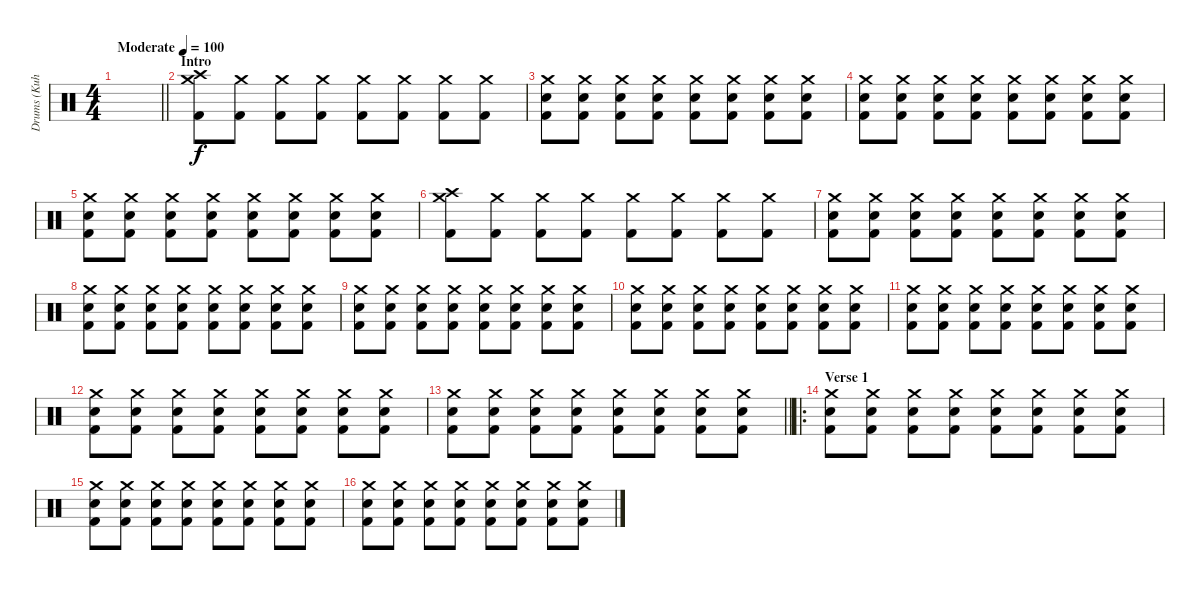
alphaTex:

\track ("Drums (Kuhara)" "Drums (Kuh") {instrument percussion}
\staff {score}
\articulation defaults
\ts (4 4)
\tempo (100 "Moderate")
\clef neutral
\barLineRight lightlight
\ks c
|
\section ("" "Intro")
("Crash medium (hit)" "Crash high (hit)" "Kick (hit) 2").8 ("Crash medium (hit)" "Kick (hit) 2").8 ("Crash medium (hit)" "Kick (hit) 2").8 ("Crash medium (hit)" "Kick (hit) 2").8 ("Crash medium (hit)" "Kick (hit) 2").8 ("Crash medium (hit)" "Kick (hit) 2").8 ("Crash medium (hit)" "Kick (hit) 2").8 ("Crash medium (hit)" "Kick (hit) 2").8 |
("Crash medium (hit)" "Electric Snare (hit)" "Kick (hit) 2").8 ("Crash medium (hit)" "Electric Snare (hit)" "Kick (hit) 2").8 ("Crash medium (hit)" "Electric Snare (hit)" "Kick (hit) 2").8 ("Crash medium (hit)" "Electric Snare (hit)" "Kick (hit) 2").8 ("Crash medium (hit)" "Electric Snare (hit)" "Kick (hit) 2").8 ("Crash medium (hit)" "Electric Snare (hit)" "Kick (hit) 2").8 ("Crash medium (hit)" "Electric Snare (hit)" "Kick (hit) 2").8 ("Crash medium (hit)" "Electric Snare (hit)" "Kick (hit) 2").8 |
("Crash medium (hit)" "Electric Snare (hit)" "Kick (hit) 2").8 ("Crash medium (hit)" "Electric Snare (hit)" "Kick (hit) 2").8 ("Crash medium (hit)" "Electric Snare (hit)" "Kick (hit) 2").8 ("Crash medium (hit)" "Electric Snare (hit)" "Kick (hit) 2").8 ("Crash medium (hit)" "Electric Snare (hit)" "Kick (hit) 2").8 ("Crash medium (hit)" "Electric Snare (hit)" "Kick (hit) 2").8 ("Crash medium (hit)" "Electric Snare (hit)" "Kick (hit) 2").8 ("Crash medium (hit)" "Electric Snare (hit)" "Kick (hit) 2").8 |
("Crash medium (hit)" "Electric Snare (hit)" "Kick (hit) 2").8 ("Crash medium (hit)" "Electric Snare (hit)" "Kick (hit) 2").8 ("Crash medium (hit)" "Electric Snare (hit)" "Kick (hit) 2").8 ("Crash medium (hit)" "Electric Snare (hit)" "Kick (hit) 2").8 ("Crash medium (hit)" "Electric Snare (hit)" "Kick (hit) 2").8 ("Crash medium (hit)" "Electric Snare (hit)" "Kick (hit) 2").8 ("Crash medium (hit)" "Electric Snare (hit)" "Kick (hit) 2").8 ("Crash medium (hit)" "Electric Snare (hit)" "Kick (hit) 2").8 |
("Crash medium (hit)" "Crash high (hit)" "Kick (hit) 2").8 ("Crash medium (hit)" "Kick (hit) 2").8 ("Crash medium (hit)" "Kick (hit) 2").8 ("Crash medium (hit)" "Kick (hit) 2").8 ("Crash medium (hit)" "Kick (hit) 2").8 ("Crash medium (hit)" "Kick (hit) 2").8 ("Crash medium (hit)" "Kick (hit) 2").8 ("Crash medium (hit)" "Kick (hit) 2").8 |
("Crash medium (hit)" "Electric Snare (hit)" "Kick (hit) 2").8 ("Crash medium (hit)" "Electric Snare (hit)" "Kick (hit) 2").8 ("Crash medium (hit)" "Electric Snare (hit)" "Kick (hit) 2").8 ("Crash medium (hit)" "Electric Snare (hit)" "Kick (hit) 2").8 ("Crash medium (hit)" "Electric Snare (hit)" "Kick (hit) 2").8 ("Crash medium (hit)" "Electric Snare (hit)" "Kick (hit) 2").8 ("Crash medium (hit)" "Electric Snare (hit)" "Kick (hit) 2").8 ("Crash medium (hit)" "Electric Snare (hit)" "Kick (hit) 2").8 |
("Crash medium (hit)" "Electric Snare (hit)" "Kick (hit) 2").8 ("Crash medium (hit)" "Electric Snare (hit)" "Kick (hit) 2").8 ("Crash medium (hit)" "Electric Snare (hit)" "Kick (hit) 2").8 ("Crash medium (hit)" "Electric Snare (hit)" "Kick (hit) 2").8 ("Crash medium (hit)" "Electric Snare (hit)" "Kick (hit) 2").8 ("Crash medium (hit)" "Electric Snare (hit)" "Kick (hit) 2").8 ("Crash medium (hit)" "Electric Snare (hit)" "Kick (hit) 2").8 ("Crash medium (hit)" "Electric Snare (hit)" "Kick (hit) 2").8 |
("Crash medium (hit)" "Electric Snare (hit)" "Kick (hit) 2").8 ("Crash medium (hit)" "Electric Snare (hit)" "Kick (hit) 2").8 ("Crash medium (hit)" "Electric Snare (hit)" "Kick (hit) 2").8 ("Crash medium (hit)" "Electric Snare (hit)" "Kick (hit) 2").8 ("Crash medium (hit)" "Electric Snare (hit)" "Kick (hit) 2").8 ("Crash medium (hit)" "Electric Snare (hit)" "Kick (hit) 2").8 ("Crash medium (hit)" "Electric Snare (hit)" "Kick (hit) 2").8 ("Crash medium (hit)" "Electric Snare (hit)" "Kick (hit) 2").8 |
("Crash medium (hit)" "Electric Snare (hit)" "Kick (hit) 2").8 ("Crash medium (hit)" "Electric Snare (hit)" "Kick (hit) 2").8 ("Crash medium (hit)" "Electric Snare (hit)" "Kick (hit) 2").8 ("Crash medium (hit)" "Electric Snare (hit)" "Kick (hit) 2").8 ("Crash medium (hit)" "Electric Snare (hit)" "Kick (hit) 2").8 ("Crash medium (hit)" "Electric Snare (hit)" "Kick (hit) 2").8 ("Crash medium (hit)" "Electric Snare (hit)" "Kick (hit) 2").8 ("Crash medium (hit)" "Electric Snare (hit)" "Kick (hit) 2").8 |
("Crash medium (hit)" "Electric Snare (hit)" "Kick (hit) 2").8 ("Crash medium (hit)" "Electric Snare (hit)" "Kick (hit) 2").8 ("Crash medium (hit)" "Electric Snare (hit)" "Kick (hit) 2").8 ("Crash medium (hit)" "Electric Snare (hit)" "Kick (hit) 2").8 ("Crash medium (hit)" "Electric Snare (hit)" "Kick (hit) 2").8 ("Crash medium (hit)" "Electric Snare (hit)" "Kick (hit) 2").8 ("Crash medium (hit)" "Electric Snare (hit)" "Kick (hit) 2").8 ("Crash medium (hit)" "Electric Snare (hit)" "Kick (hit) 2").8 |
("Crash medium (hit)" "Electric Snare (hit)" "Kick (hit) 2").8 ("Crash medium (hit)" "Electric Snare (hit)" "Kick (hit) 2").8 ("Crash medium (hit)" "Electric Snare (hit)" "Kick (hit) 2").8 ("Crash medium (hit)" "Electric Snare (hit)" "Kick (hit) 2").8 ("Crash medium (hit)" "Electric Snare (hit)" "Kick (hit) 2").8 ("Crash medium (hit)" "Electric Snare (hit)" "Kick (hit) 2").8 ("Crash medium (hit)" "Electric Snare (hit)" "Kick (hit) 2").8 ("Crash medium (hit)" "Electric Snare (hit)" "Kick (hit) 2").8 |
\barLineRight lightlight
("Crash medium (hit)" "Electric Snare (hit)" "Kick (hit) 2").8 ("Crash medium (hit)" "Electric Snare (hit)" "Kick (hit) 2").8 ("Crash medium (hit)" "Electric Snare (hit)" "Kick (hit) 2").8 ("Crash medium (hit)" "Electric Snare (hit)" "Kick (hit) 2").8 ("Crash medium (hit)" "Electric Snare (hit)" "Kick (hit) 2").8 ("Crash medium (hit)" "Electric Snare (hit)" "Kick (hit) 2").8 ("Crash medium (hit)" "Electric Snare (hit)" "Kick (hit) 2").8 ("Crash medium (hit)" "Electric Snare (hit)" "Kick (hit) 2").8 |
\ro
\section ("" "Verse 1")
("Crash medium (hit)" "Electric Snare (hit)" "Kick (hit) 2").8 ("Crash medium (hit)" "Electric Snare (hit)" "Kick (hit) 2").8 ("Crash medium (hit)" "Electric Snare (hit)" "Kick (hit) 2").8 ("Crash medium (hit)" "Electric Snare (hit)" "Kick (hit) 2").8 ("Crash medium (hit)" "Electric Snare (hit)" "Kick (hit) 2").8 ("Crash medium (hit)" "Electric Snare (hit)" "Kick (hit) 2").8 ("Crash medium (hit)" "Electric Snare (hit)" "Kick (hit) 2").8 ("Crash medium (hit)" "Electric Snare (hit)" "Kick (hit) 2").8 |
("Crash medium (hit)" "Electric Snare (hit)" "Kick (hit) 2").8 ("Crash medium (hit)" "Electric Snare (hit)" "Kick (hit) 2").8 ("Crash medium (hit)" "Electric Snare (hit)" "Kick (hit) 2").8 ("Crash medium (hit)" "Electric Snare (hit)" "Kick (hit) 2").8 ("Crash medium (hit)" "Electric Snare (hit)" "Kick (hit) 2").8 ("Crash medium (hit)" "Electric Snare (hit)" "Kick (hit) 2").8 ("Crash medium (hit)" "Electric Snare (hit)" "Kick (hit) 2").8 ("Crash medium (hit)" "Electric Snare (hit)" "Kick (hit) 2").8 |
("Crash medium (hit)" "Electric Snare (hit)" "Kick (hit) 2").8 ("Crash medium (hit)" "Electric Snare (hit)" "Kick (hit) 2").8 ("Crash medium (hit)" "Electric Snare (hit)" "Kick (hit) 2").8 ("Crash medium (hit)" "Electric Snare (hit)" "Kick (hit) 2").8 ("Crash medium (hit)" "Electric Snare (hit)" "Kick (hit) 2").8 ("Crash medium (hit)" "Electric Snare (hit)" "Kick (hit) 2").8 ("Crash medium (hit)" "Electric Snare (hit)" "Kick (hit) 2").8 ("Crash medium (hit)" "Electric Snare (hit)" "Kick (hit) 2").8
